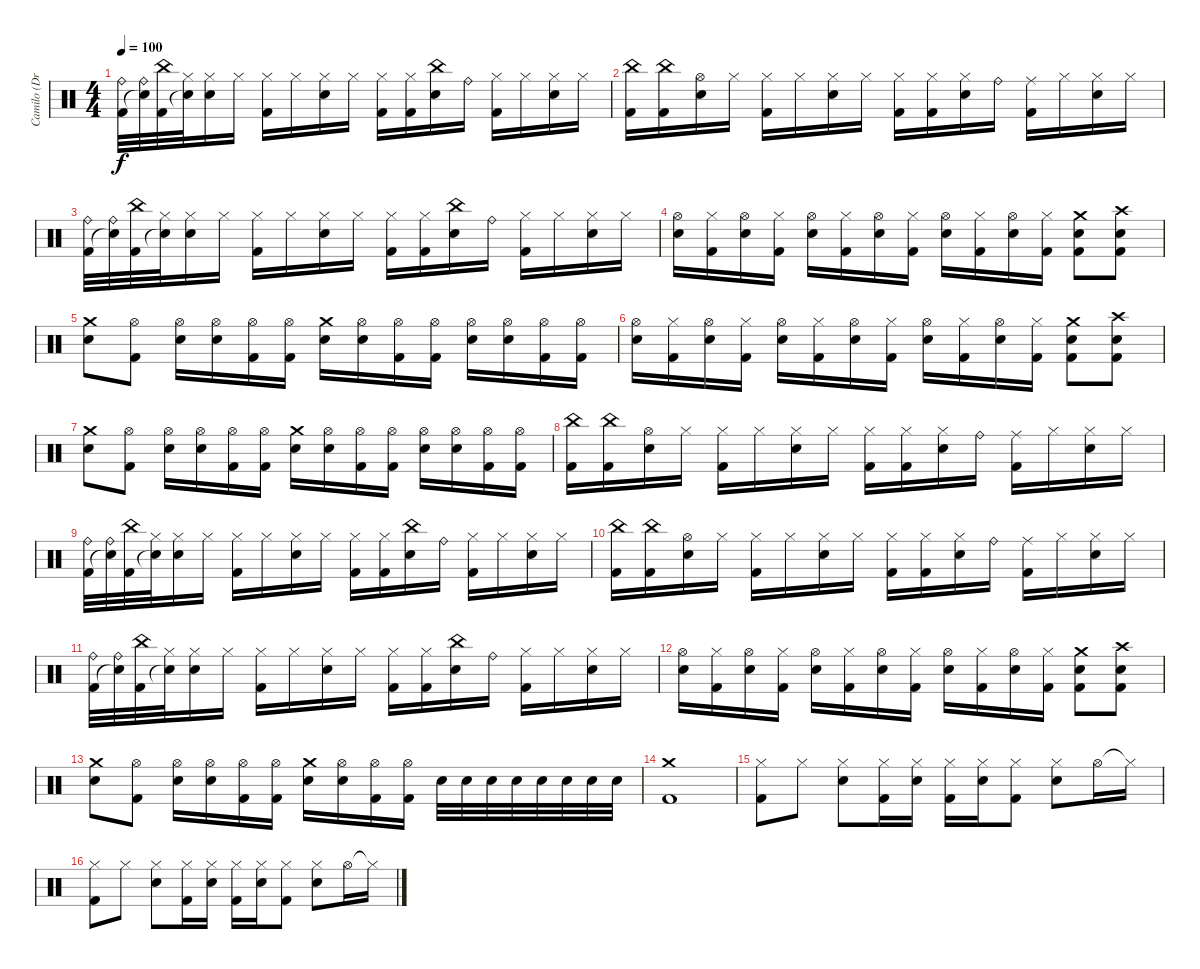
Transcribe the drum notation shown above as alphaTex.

\track ("Camilo (Drums)" "Camilo (Dr") {instrument percussion}
\staff {score}
\articulation defaults
\ts (4 4)
\tempo 100
\clef neutral
\ks c
("Ride (bell)" "Kick (hit) 2").32{dy f} ("Ride (bell)" "Snare (hit)"{t}).32 ("China (hit)" "Kick (hit) 2").32 ("Hi-Hat (closed)" "Snare (hit)"{t}).32 ("Hi-Hat (closed)" "Electric Snare (hit)").16 "Hi-Hat (closed)".16 ("Hi-Hat (closed)" "Kick (hit) 2").16 "Hi-Hat (closed)".16 ("Hi-Hat (closed)" "Electric Snare (hit)").16 "Hi-Hat (closed)".16 ("Hi-Hat (closed)" "Kick (hit) 2").16 ("Hi-Hat (closed)" "Kick (hit) 2").16 ("China (hit)" "Electric Snare (hit)").16 "Ride (bell)".16 ("Hi-Hat (closed)" "Kick (hit) 2").16 "Hi-Hat (closed)".16 ("Hi-Hat (closed)" "Electric Snare (hit)").16 "Hi-Hat (closed)".16 |
("China (hit)" "Kick (hit) 2").16 ("China (hit)" "Kick (hit) 2").16 ("Hi-Hat (open)" "Electric Snare (hit)").16 "Hi-Hat (closed)".16 ("Hi-Hat (closed)" "Kick (hit) 2").16 "Hi-Hat (closed)".16 ("Hi-Hat (closed)" "Electric Snare (hit)").16 "Hi-Hat (closed)".16 ("Hi-Hat (closed)" "Kick (hit) 2").16 ("Hi-Hat (closed)" "Kick (hit) 2").16 ("Hi-Hat (closed)" "Electric Snare (hit)").16 "Ride (bell)".16 ("Ride (middle)" "Kick (hit) 2").16 "Hi-Hat (closed)".16 ("Hi-Hat (closed)" "Electric Snare (hit)").16 "Hi-Hat (closed)".16 |
("Ride (bell)" "Kick (hit) 2").32 ("Ride (bell)" "Snare (hit)"{t}).32 ("China (hit)" "Kick (hit) 2").32 ("Hi-Hat (closed)" "Snare (hit)"{t}).32 ("Hi-Hat (closed)" "Electric Snare (hit)").16 "Hi-Hat (closed)".16 ("Hi-Hat (closed)" "Kick (hit) 2").16 "Hi-Hat (closed)".16 ("Hi-Hat (closed)" "Electric Snare (hit)").16 "Hi-Hat (closed)".16 ("Hi-Hat (closed)" "Kick (hit) 2").16 ("Hi-Hat (closed)" "Kick (hit) 2").16 ("China (hit)" "Electric Snare (hit)").16 "Ride (bell)".16 ("Hi-Hat (closed)" "Kick (hit) 2").16 "Hi-Hat (closed)".16 ("Hi-Hat (closed)" "Electric Snare (hit)").16 "Hi-Hat (closed)".16 |
("Hi-Hat (open)" "Electric Snare (hit)").16 ("Hi-Hat (closed)" "Kick (hit) 2").16 ("Hi-Hat (open)" "Electric Snare (hit)").16 ("Hi-Hat (closed)" "Kick (hit) 2").16 ("Hi-Hat (open)" "Electric Snare (hit)").16 ("Hi-Hat (closed)" "Kick (hit) 2").16 ("Hi-Hat (open)" "Electric Snare (hit)").16 ("Hi-Hat (closed)" "Kick (hit) 2").16 ("Hi-Hat (open)" "Electric Snare (hit)").16 ("Hi-Hat (closed)" "Kick (hit) 2").16 ("Hi-Hat (open)" "Electric Snare (hit)").16 ("Hi-Hat (closed)" "Kick (hit) 2").16 ("Crash medium (hit)" "Electric Snare (hit)" "Kick (hit) 2").8 ("Crash high (hit)" "Electric Snare (hit)" "Kick (hit) 2").8 |
("Crash medium (hit)" "Electric Snare (hit)").8 ("Hi-Hat (open)" "Kick (hit) 2").8 ("Hi-Hat (open)" "Electric Snare (hit)").16 ("Hi-Hat (open)" "Electric Snare (hit)").16 ("Hi-Hat (open)" "Kick (hit) 2").16 ("Hi-Hat (open)" "Kick (hit) 2").16 ("Crash medium (hit)" "Electric Snare (hit)").16 ("Hi-Hat (open)" "Electric Snare (hit)").16 ("Hi-Hat (open)" "Kick (hit) 2").16 ("Hi-Hat (open)" "Kick (hit) 2").16 ("Hi-Hat (open)" "Electric Snare (hit)").16 ("Hi-Hat (open)" "Electric Snare (hit)").16 ("Hi-Hat (open)" "Kick (hit) 2").16 ("Hi-Hat (open)" "Kick (hit) 2").16 |
("Hi-Hat (open)" "Electric Snare (hit)").16 ("Hi-Hat (closed)" "Kick (hit) 2").16 ("Hi-Hat (open)" "Electric Snare (hit)").16 ("Hi-Hat (closed)" "Kick (hit) 2").16 ("Hi-Hat (open)" "Electric Snare (hit)").16 ("Hi-Hat (closed)" "Kick (hit) 2").16 ("Hi-Hat (open)" "Electric Snare (hit)").16 ("Hi-Hat (closed)" "Kick (hit) 2").16 ("Hi-Hat (open)" "Electric Snare (hit)").16 ("Hi-Hat (closed)" "Kick (hit) 2").16 ("Hi-Hat (open)" "Electric Snare (hit)").16 ("Hi-Hat (closed)" "Kick (hit) 2").16 ("Crash medium (hit)" "Electric Snare (hit)" "Kick (hit) 2").8 ("Crash high (hit)" "Electric Snare (hit)" "Kick (hit) 2").8 |
("Crash medium (hit)" "Electric Snare (hit)").8 ("Hi-Hat (open)" "Kick (hit) 2").8 ("Hi-Hat (open)" "Electric Snare (hit)").16 ("Hi-Hat (open)" "Electric Snare (hit)").16 ("Hi-Hat (open)" "Kick (hit) 2").16 ("Hi-Hat (open)" "Kick (hit) 2").16 ("Crash medium (hit)" "Electric Snare (hit)").16 ("Hi-Hat (open)" "Electric Snare (hit)").16 ("Hi-Hat (open)" "Kick (hit) 2").16 ("Hi-Hat (open)" "Kick (hit) 2").16 ("Hi-Hat (open)" "Electric Snare (hit)").16 ("Hi-Hat (open)" "Electric Snare (hit)").16 ("Hi-Hat (open)" "Kick (hit) 2").16 ("Hi-Hat (open)" "Kick (hit) 2").16 |
("China (hit)" "Kick (hit) 2").16 ("China (hit)" "Kick (hit) 2").16 ("Hi-Hat (open)" "Electric Snare (hit)").16 "Hi-Hat (closed)".16 ("Hi-Hat (closed)" "Kick (hit) 2").16 "Hi-Hat (closed)".16 ("Hi-Hat (closed)" "Electric Snare (hit)").16 "Hi-Hat (closed)".16 ("Hi-Hat (closed)" "Kick (hit) 2").16 ("Hi-Hat (closed)" "Kick (hit) 2").16 ("Hi-Hat (closed)" "Electric Snare (hit)").16 "Ride (bell)".16 ("Ride (middle)" "Kick (hit) 2").16 "Hi-Hat (closed)".16 ("Hi-Hat (closed)" "Electric Snare (hit)").16 "Hi-Hat (closed)".16 |
("Ride (bell)" "Kick (hit) 2").32 ("Ride (bell)" "Snare (hit)"{t}).32 ("China (hit)" "Kick (hit) 2").32 ("Hi-Hat (closed)" "Snare (hit)"{t}).32 ("Hi-Hat (closed)" "Electric Snare (hit)").16 "Hi-Hat (closed)".16 ("Hi-Hat (closed)" "Kick (hit) 2").16 "Hi-Hat (closed)".16 ("Hi-Hat (closed)" "Electric Snare (hit)").16 "Hi-Hat (closed)".16 ("Hi-Hat (closed)" "Kick (hit) 2").16 ("Hi-Hat (closed)" "Kick (hit) 2").16 ("China (hit)" "Electric Snare (hit)").16 "Ride (bell)".16 ("Hi-Hat (closed)" "Kick (hit) 2").16 "Hi-Hat (closed)".16 ("Hi-Hat (closed)" "Electric Snare (hit)").16 "Hi-Hat (closed)".16 |
("China (hit)" "Kick (hit) 2").16 ("China (hit)" "Kick (hit) 2").16 ("Hi-Hat (open)" "Electric Snare (hit)").16 "Hi-Hat (closed)".16 ("Hi-Hat (closed)" "Kick (hit) 2").16 "Hi-Hat (closed)".16 ("Hi-Hat (closed)" "Electric Snare (hit)").16 "Hi-Hat (closed)".16 ("Hi-Hat (closed)" "Kick (hit) 2").16 ("Hi-Hat (closed)" "Kick (hit) 2").16 ("Hi-Hat (closed)" "Electric Snare (hit)").16 "Ride (bell)".16 ("Ride (middle)" "Kick (hit) 2").16 "Hi-Hat (closed)".16 ("Hi-Hat (closed)" "Electric Snare (hit)").16 "Hi-Hat (closed)".16 |
("Ride (bell)" "Kick (hit) 2").32 ("Ride (bell)" "Snare (hit)"{t}).32 ("China (hit)" "Kick (hit) 2").32 ("Hi-Hat (closed)" "Snare (hit)"{t}).32 ("Hi-Hat (closed)" "Electric Snare (hit)").16 "Hi-Hat (closed)".16 ("Hi-Hat (closed)" "Kick (hit) 2").16 "Hi-Hat (closed)".16 ("Hi-Hat (closed)" "Electric Snare (hit)").16 "Hi-Hat (closed)".16 ("Hi-Hat (closed)" "Kick (hit) 2").16 ("Hi-Hat (closed)" "Kick (hit) 2").16 ("China (hit)" "Electric Snare (hit)").16 "Ride (bell)".16 ("Hi-Hat (closed)" "Kick (hit) 2").16 "Hi-Hat (closed)".16 ("Hi-Hat (closed)" "Electric Snare (hit)").16 "Hi-Hat (closed)".16 |
("Hi-Hat (open)" "Electric Snare (hit)").16 ("Hi-Hat (closed)" "Kick (hit) 2").16 ("Hi-Hat (open)" "Electric Snare (hit)").16 ("Hi-Hat (closed)" "Kick (hit) 2").16 ("Hi-Hat (open)" "Electric Snare (hit)").16 ("Hi-Hat (closed)" "Kick (hit) 2").16 ("Hi-Hat (open)" "Electric Snare (hit)").16 ("Hi-Hat (closed)" "Kick (hit) 2").16 ("Hi-Hat (open)" "Electric Snare (hit)").16 ("Hi-Hat (closed)" "Kick (hit) 2").16 ("Hi-Hat (open)" "Electric Snare (hit)").16 ("Hi-Hat (closed)" "Kick (hit) 2").16 ("Crash medium (hit)" "Electric Snare (hit)" "Kick (hit) 2").8 ("Crash high (hit)" "Electric Snare (hit)" "Kick (hit) 2").8 |
("Crash medium (hit)" "Electric Snare (hit)").8 ("Hi-Hat (open)" "Kick (hit) 2").8 ("Hi-Hat (open)" "Electric Snare (hit)").16 ("Hi-Hat (open)" "Electric Snare (hit)").16 ("Hi-Hat (open)" "Kick (hit) 2").16 ("Hi-Hat (open)" "Kick (hit) 2").16 ("Crash medium (hit)" "Electric Snare (hit)").16 ("Hi-Hat (open)" "Electric Snare (hit)").16 ("Hi-Hat (open)" "Kick (hit) 2").16 ("Hi-Hat (open)" "Kick (hit) 2").16 "Electric Snare (hit)".32 "Electric Snare (hit)".32 "Electric Snare (hit)".32 "Electric Snare (hit)".32 "Electric Snare (hit)".32 "Electric Snare (hit)".32 "Electric Snare (hit)".32 "Electric Snare (hit)".32 |
("Crash medium (hit)" "Kick (hit) 2").1 |
("Hi-Hat (closed)" "Kick (hit) 2").8 "Hi-Hat (closed)".8 ("Hi-Hat (closed)" "Electric Snare (hit)").8 ("Hi-Hat (closed)" "Kick (hit) 2").16 ("Hi-Hat (closed)" "Electric Snare (hit)").16 ("Hi-Hat (closed)" "Kick (hit) 2").16 ("Hi-Hat (closed)" "Electric Snare (hit)").16 ("Hi-Hat (closed)" "Kick (hit) 2").8 ("Hi-Hat (closed)" "Electric Snare (hit)").8 "Hi-Hat (open)".16 "Hi-Hat (closed)"{t}.16 |
("Hi-Hat (closed)" "Kick (hit) 2").8 "Hi-Hat (closed)".8 ("Hi-Hat (closed)" "Electric Snare (hit)").8 ("Hi-Hat (closed)" "Kick (hit) 2").16 ("Hi-Hat (closed)" "Electric Snare (hit)").16 ("Hi-Hat (closed)" "Kick (hit) 2").16 ("Hi-Hat (closed)" "Electric Snare (hit)").16 ("Hi-Hat (closed)" "Kick (hit) 2").8 ("Hi-Hat (closed)" "Electric Snare (hit)").8 "Hi-Hat (open)".16 "Hi-Hat (closed)"{t}.16
